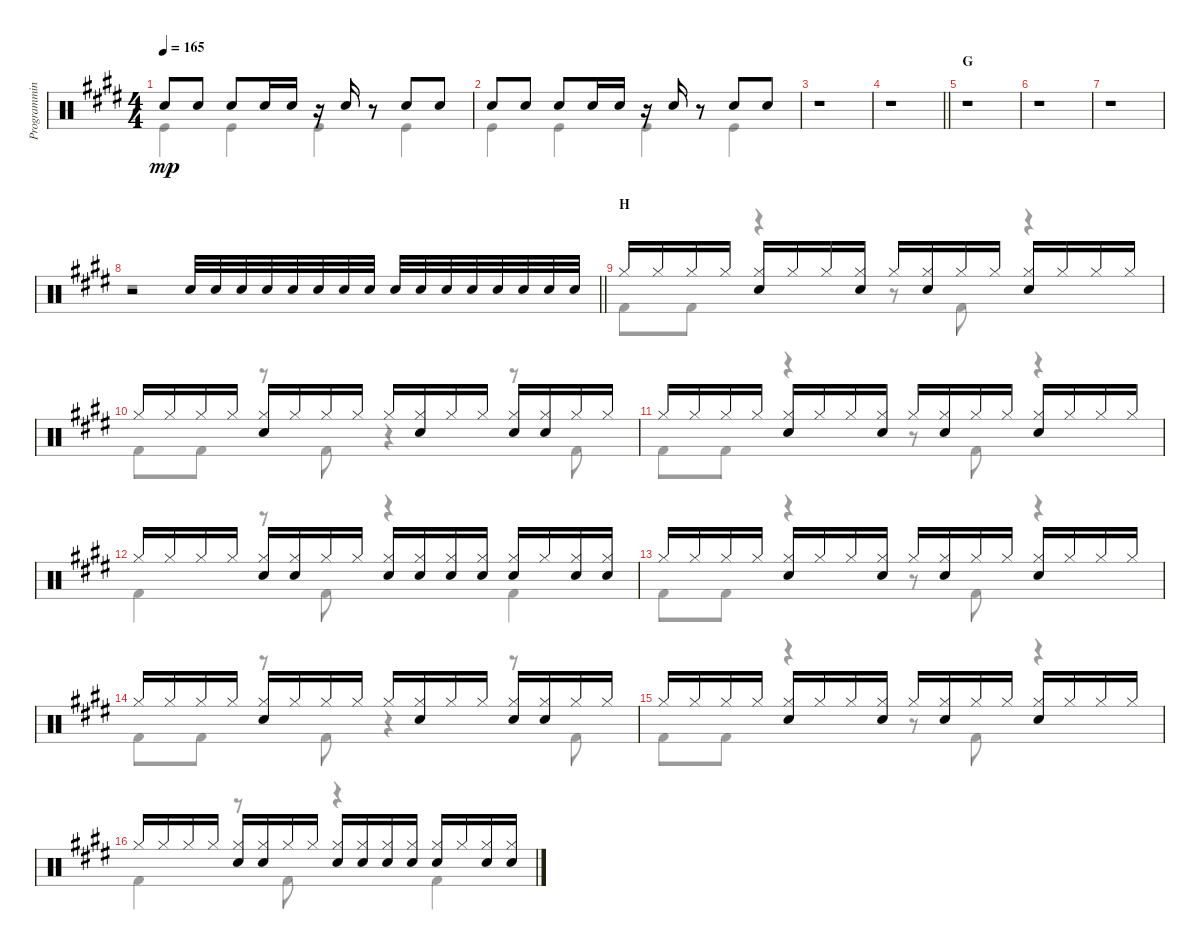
\track ("Programming I" "Programmin") {instrument percussion}
\staff {score}
\articulation defaults
\voice
\ts (4 4)
\tempo 165
\clef neutral
\ks e "Electric Snare (hit)".8{dy mp} "Electric Snare (hit)".8 "Electric Snare (hit)".8 "Electric Snare (hit)".16 "Electric Snare (hit)".16
r.16 "Electric Snare (hit)".16 r.8 "Electric Snare (hit)".8 "Electric Snare (hit)".8 |
"Electric Snare (hit)".8 "Electric Snare (hit)".8 "Electric Snare (hit)".8 "Electric Snare (hit)".16 "Electric Snare (hit)".16 r.16 "Electric Snare (hit)".16 r.8 "Electric Snare (hit)".8 "Electric Snare (hit)".8 |
r.1 |
\barLineRight lightlight
r.1 |
\section ("" "G")
r.1 |
r.1 |
r.1 |
\barLineRight lightlight
r.2 "Electric Snare (hit)".32 "Electric Snare (hit)".32 "Electric Snare (hit)".32 "Electric Snare (hit)".32 "Electric Snare (hit)".32 "Electric Snare (hit)".32 "Electric Snare (hit)".32 "Electric Snare (hit)".32 "Electric Snare (hit)".32 "Electric Snare (hit)".32 "Electric Snare (hit)".32 "Electric Snare (hit)".32 "Electric Snare (hit)".32 "Electric Snare (hit)".32 "Electric Snare (hit)".32 "Electric Snare (hit)".32 |
\section ("" "H")
"Hi-Hat (closed)".16 "Hi-Hat (closed)".16 "Hi-Hat (closed)".16 "Hi-Hat (closed)".16 ("Hi-Hat (closed)" "Electric Snare (hit)").16 "Hi-Hat (closed)".16 "Hi-Hat (closed)".16 ("Hi-Hat (closed)" "Electric Snare (hit)").16 "Hi-Hat (closed)".16 ("Hi-Hat (closed)" "Electric Snare (hit)").16 "Hi-Hat (closed)".16 "Hi-Hat (closed)".16 ("Hi-Hat (closed)" "Electric Snare (hit)").16 "Hi-Hat (closed)".16 "Hi-Hat (closed)".16 "Hi-Hat (closed)".16 |
"Hi-Hat (closed)".16 "Hi-Hat (closed)".16 "Hi-Hat (closed)".16 "Hi-Hat (closed)".16 ("Hi-Hat (closed)" "Electric Snare (hit)").16 "Hi-Hat (closed)".16 "Hi-Hat (closed)".16 "Hi-Hat (closed)".16 "Hi-Hat (closed)".16 ("Hi-Hat (closed)" "Electric Snare (hit)").16 "Hi-Hat (closed)".16 "Hi-Hat (closed)".16 ("Hi-Hat (closed)" "Electric Snare (hit)").16 ("Hi-Hat (closed)" "Electric Snare (hit)").16 "Hi-Hat (closed)".16 "Hi-Hat (closed)".16 |
"Hi-Hat (closed)".16 "Hi-Hat (closed)".16 "Hi-Hat (closed)".16 "Hi-Hat (closed)".16 ("Hi-Hat (closed)" "Electric Snare (hit)").16 "Hi-Hat (closed)".16 "Hi-Hat (closed)".16 ("Hi-Hat (closed)" "Electric Snare (hit)").16 "Hi-Hat (closed)".16 ("Hi-Hat (closed)" "Electric Snare (hit)").16 "Hi-Hat (closed)".16 "Hi-Hat (closed)".16 ("Hi-Hat (closed)" "Electric Snare (hit)").16 "Hi-Hat (closed)".16 "Hi-Hat (closed)".16 "Hi-Hat (closed)".16 |
"Hi-Hat (closed)".16 "Hi-Hat (closed)".16 "Hi-Hat (closed)".16 "Hi-Hat (closed)".16 ("Hi-Hat (closed)" "Electric Snare (hit)").16 ("Hi-Hat (closed)" "Electric Snare (hit)").16 "Hi-Hat (closed)".16 "Hi-Hat (closed)".16 ("Hi-Hat (closed)" "Electric Snare (hit)").16 ("Hi-Hat (closed)" "Electric Snare (hit)").16 ("Hi-Hat (closed)" "Electric Snare (hit)").16 ("Hi-Hat (closed)" "Electric Snare (hit)").16 ("Hi-Hat (closed)" "Electric Snare (hit)").16 "Hi-Hat (closed)".16 ("Hi-Hat (closed)" "Electric Snare (hit)").16 ("Hi-Hat (closed)" "Electric Snare (hit)").16 |
"Hi-Hat (closed)".16 "Hi-Hat (closed)".16 "Hi-Hat (closed)".16 "Hi-Hat (closed)".16 ("Hi-Hat (closed)" "Electric Snare (hit)").16 "Hi-Hat (closed)".16 "Hi-Hat (closed)".16 ("Hi-Hat (closed)" "Electric Snare (hit)").16 "Hi-Hat (closed)".16 ("Hi-Hat (closed)" "Electric Snare (hit)").16 "Hi-Hat (closed)".16 "Hi-Hat (closed)".16 ("Hi-Hat (closed)" "Electric Snare (hit)").16 "Hi-Hat (closed)".16 "Hi-Hat (closed)".16 "Hi-Hat (closed)".16 |
"Hi-Hat (closed)".16 "Hi-Hat (closed)".16 "Hi-Hat (closed)".16 "Hi-Hat (closed)".16 ("Hi-Hat (closed)" "Electric Snare (hit)").16 "Hi-Hat (closed)".16 "Hi-Hat (closed)".16 "Hi-Hat (closed)".16 "Hi-Hat (closed)".16 ("Hi-Hat (closed)" "Electric Snare (hit)").16 "Hi-Hat (closed)".16 "Hi-Hat (closed)".16 ("Hi-Hat (closed)" "Electric Snare (hit)").16 ("Hi-Hat (closed)" "Electric Snare (hit)").16 "Hi-Hat (closed)".16 "Hi-Hat (closed)".16 |
"Hi-Hat (closed)".16 "Hi-Hat (closed)".16 "Hi-Hat (closed)".16 "Hi-Hat (closed)".16 ("Hi-Hat (closed)" "Electric Snare (hit)").16 "Hi-Hat (closed)".16 "Hi-Hat (closed)".16 ("Hi-Hat (closed)" "Electric Snare (hit)").16 "Hi-Hat (closed)".16 ("Hi-Hat (closed)" "Electric Snare (hit)").16 "Hi-Hat (closed)".16 "Hi-Hat (closed)".16 ("Hi-Hat (closed)" "Electric Snare (hit)").16 "Hi-Hat (closed)".16 "Hi-Hat (closed)".16 "Hi-Hat (closed)".16 |
"Hi-Hat (closed)".16 "Hi-Hat (closed)".16 "Hi-Hat (closed)".16 "Hi-Hat (closed)".16 ("Hi-Hat (closed)" "Electric Snare (hit)").16 ("Hi-Hat (closed)" "Electric Snare (hit)").16 "Hi-Hat (closed)".16 "Hi-Hat (closed)".16 ("Hi-Hat (closed)" "Electric Snare (hit)").16 ("Hi-Hat (closed)" "Electric Snare (hit)").16 ("Hi-Hat (closed)" "Electric Snare (hit)").16 ("Hi-Hat (closed)" "Electric Snare (hit)").16 ("Hi-Hat (closed)" "Electric Snare (hit)").16 "Hi-Hat (closed)".16 ("Hi-Hat (closed)" "Electric Snare (hit)").16 ("Hi-Hat (closed)" "Electric Snare (hit)").16
\voice
\clef neutral
\ottava regular
\simile none
\ks e "Kick (hit)".4{dy mp} "Kick (hit)".4 "Kick (hit)".4 "Kick (hit)".4
|
"Kick (hit)".4 "Kick (hit)".4 "Kick (hit)".4 "Kick (hit)".4 |
r.1 |
\barLineRight lightlight
r.1 |
r.1 |
r.1 |
r.1 |
\barLineRight lightlight
r.1 |
"Kick (hit) 2".8 "Kick (hit) 2".8 r.4 r.8 "Kick (hit) 2".8 r.4 |
"Kick (hit) 2".8 "Kick (hit) 2".8 r.8 "Kick (hit) 2".8 r.4 r.8 "Kick (hit) 2".8 |
"Kick (hit) 2".8 "Kick (hit) 2".8 r.4 r.8 "Kick (hit) 2".8 r.4 |
"Kick (hit) 2".4 r.8 "Kick (hit) 2".8 r.4 "Kick (hit) 2".4 |
"Kick (hit) 2".8 "Kick (hit) 2".8 r.4 r.8 "Kick (hit) 2".8 r.4 |
"Kick (hit) 2".8 "Kick (hit) 2".8 r.8 "Kick (hit) 2".8 r.4 r.8 "Kick (hit) 2".8 |
"Kick (hit) 2".8 "Kick (hit) 2".8 r.4 r.8 "Kick (hit) 2".8 r.4 |
"Kick (hit) 2".4 r.8 "Kick (hit) 2".8 r.4 "Kick (hit) 2".4
